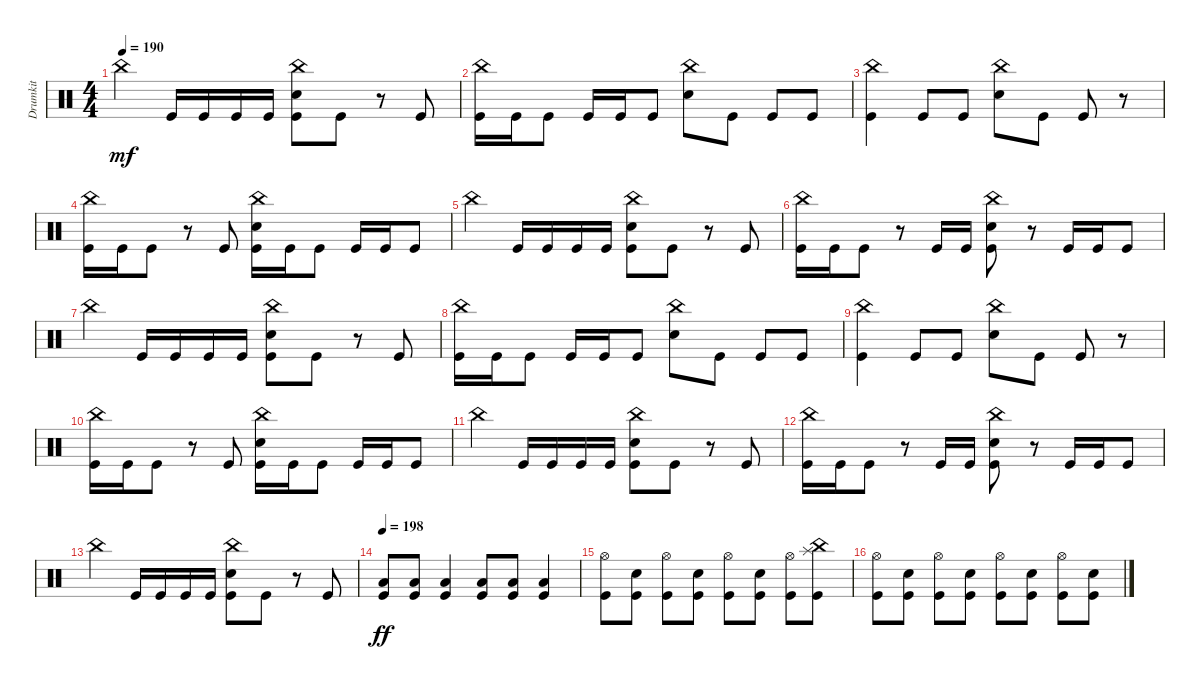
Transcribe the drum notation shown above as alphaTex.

\track ("Drumkit" "Drumkit") {instrument percussion}
\staff {score}
\articulation defaults
\ts (4 4)
\tempo 190
\clef neutral
\ks c "China (hit)".4{dy mf} "Kick (hit)".16 "Kick (hit)".16 "Kick (hit)".16 "Kick (hit)".16
("Kick (hit)" "China (hit)" "Snare (hit) 2").8 "Kick (hit)".8 r.8 "Kick (hit)".8 |
("Kick (hit)" "China (hit)").16 "Kick (hit)".16 "Kick (hit)".8 "Kick (hit)".16 "Kick (hit)".16 "Kick (hit)".8 ("China (hit)" "Snare (hit) 2").8 "Kick (hit)".8 "Kick (hit)".8 "Kick (hit)".8 |
("Kick (hit)" "China (hit)").4 "Kick (hit)".8 "Kick (hit)".8 ("China (hit)" "Snare (hit) 2").8 "Kick (hit)".8 "Kick (hit)".8 r.8 |
("Kick (hit)" "China (hit)").16 "Kick (hit)".16 "Kick (hit)".8 r.8 "Kick (hit)".8 ("Kick (hit)" "China (hit)" "Snare (hit) 2").16 "Kick (hit)".16 "Kick (hit)".8 "Kick (hit)".16 "Kick (hit)".16 "Kick (hit)".8 |
"China (hit)".4 "Kick (hit)".16 "Kick (hit)".16 "Kick (hit)".16 "Kick (hit)".16 ("Kick (hit)" "China (hit)" "Snare (hit) 2").8 "Kick (hit)".8 r.8 "Kick (hit)".8 |
("Kick (hit)" "China (hit)").16 "Kick (hit)".16 "Kick (hit)".8 r.8 "Kick (hit)".16 "Kick (hit)".16 ("Kick (hit)" "China (hit)" "Snare (hit) 2").8 r.8 "Kick (hit)".16 "Kick (hit)".16 "Kick (hit)".8 |
"China (hit)".4 "Kick (hit)".16 "Kick (hit)".16 "Kick (hit)".16 "Kick (hit)".16 ("Kick (hit)" "China (hit)" "Snare (hit) 2").8 "Kick (hit)".8 r.8 "Kick (hit)".8 |
("Kick (hit)" "China (hit)").16 "Kick (hit)".16 "Kick (hit)".8 "Kick (hit)".16 "Kick (hit)".16 "Kick (hit)".8 ("China (hit)" "Snare (hit) 2").8 "Kick (hit)".8 "Kick (hit)".8 "Kick (hit)".8 |
("Kick (hit)" "China (hit)").4 "Kick (hit)".8 "Kick (hit)".8 ("China (hit)" "Snare (hit) 2").8 "Kick (hit)".8 "Kick (hit)".8 r.8 |
("Kick (hit)" "China (hit)").16 "Kick (hit)".16 "Kick (hit)".8 r.8 "Kick (hit)".8 ("Kick (hit)" "China (hit)" "Snare (hit) 2").16 "Kick (hit)".16 "Kick (hit)".8 "Kick (hit)".16 "Kick (hit)".16 "Kick (hit)".8 |
"China (hit)".4 "Kick (hit)".16 "Kick (hit)".16 "Kick (hit)".16 "Kick (hit)".16 ("Kick (hit)" "China (hit)" "Snare (hit) 2").8 "Kick (hit)".8 r.8 "Kick (hit)".8 |
("Kick (hit)" "China (hit)").16 "Kick (hit)".16 "Kick (hit)".8 r.8 "Kick (hit)".16 "Kick (hit)".16 ("Kick (hit)" "China (hit)" "Snare (hit) 2").8 r.8 "Kick (hit)".16 "Kick (hit)".16 "Kick (hit)".8 |
"China (hit)".4 "Kick (hit)".16 "Kick (hit)".16 "Kick (hit)".16 "Kick (hit)".16 ("Kick (hit)" "China (hit)" "Snare (hit) 2").8 "Kick (hit)".8 r.8 "Kick (hit)".8 |
\tempo 198
("Low Floor Tom (hit)" "Kick (hit)").8{dy ff} ("Low Floor Tom (hit)" "Kick (hit)").8 ("Kick (hit)" "Low Floor Tom (hit)").4 ("Low Floor Tom (hit)" "Kick (hit)").8 ("Kick (hit)" "Low Floor Tom (hit)").8 ("Low Floor Tom (hit)" "Kick (hit)").4 |
("Hi-Hat (open)" "Kick (hit)").8 ("Snare (hit) 2" "Kick (hit)").8 ("Hi-Hat (open)" "Kick (hit)").8 ("Snare (hit) 2" "Kick (hit)").8 ("Hi-Hat (open)" "Kick (hit)").8 ("Snare (hit) 2" "Kick (hit)").8 ("Hi-Hat (open)" "Kick (hit)").8 ("Kick (hit)" "China (hit)" "Splash (hit)").8 |
("Hi-Hat (open)" "Kick (hit)").8 ("Snare (hit) 2" "Kick (hit)").8 ("Hi-Hat (open)" "Kick (hit)").8 ("Snare (hit) 2" "Kick (hit)").8 ("Hi-Hat (open)" "Kick (hit)").8 ("Snare (hit) 2" "Kick (hit)").8 ("Hi-Hat (open)" "Kick (hit)").8 ("Snare (hit) 2" "Kick (hit)").8
